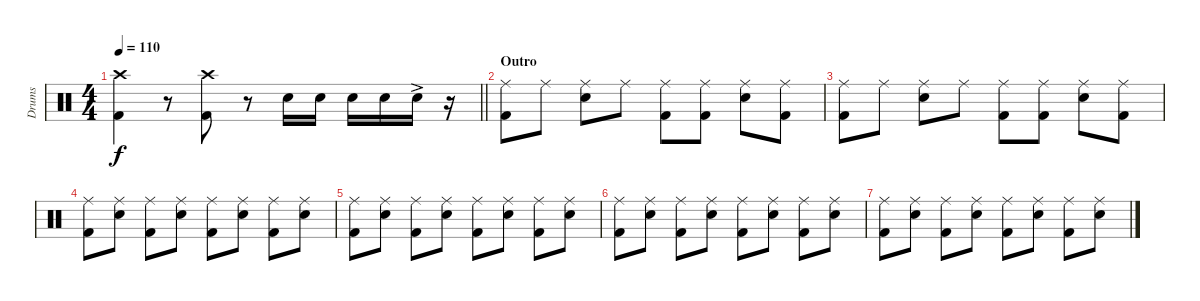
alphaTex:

\track ("Drums" "Drums") {instrument percussion}
\staff {score}
\articulation defaults
\ts (4 4)
\tempo 110
\clef neutral
\barLineRight lightlight
\ks c
("Crash high (hit)" "Kick (hit) 2").4{dy f} r.8 ("Crash high (hit)" "Kick (hit) 2").8 r.8 "Snare (hit) 2".16 "Snare (hit) 2".16 "Snare (hit) 2".16 "Snare (hit) 2".16 "Snare (hit) 2"{ac}.16 r.16 |
\section ("" "Outro")
("Ride (middle)" "Kick (hit) 2").8 "Ride (middle)".8 ("Ride (middle)" "Snare (hit) 2").8 "Ride (middle)".8 ("Ride (middle)" "Kick (hit) 2").8 ("Ride (middle)" "Kick (hit) 2").8 ("Ride (middle)" "Snare (hit) 2").8 ("Ride (middle)" "Kick (hit) 2").8 |
("Ride (middle)" "Kick (hit) 2").8 "Ride (middle)".8 ("Ride (middle)" "Snare (hit) 2").8 "Ride (middle)".8 ("Ride (middle)" "Kick (hit) 2").8 ("Ride (middle)" "Kick (hit) 2").8 ("Ride (middle)" "Snare (hit) 2").8 ("Ride (middle)" "Kick (hit) 2").8 |
("Ride (middle)" "Kick (hit) 2").8 ("Ride (middle)" "Snare (hit) 2").8 ("Ride (middle)" "Kick (hit) 2").8 ("Ride (middle)" "Snare (hit) 2").8 ("Ride (middle)" "Kick (hit) 2").8 ("Ride (middle)" "Snare (hit) 2").8 ("Ride (middle)" "Kick (hit) 2").8 ("Ride (middle)" "Snare (hit) 2").8 |
("Ride (middle)" "Kick (hit) 2").8 ("Ride (middle)" "Snare (hit) 2").8 ("Ride (middle)" "Kick (hit) 2").8 ("Ride (middle)" "Snare (hit) 2").8 ("Ride (middle)" "Kick (hit) 2").8 ("Ride (middle)" "Snare (hit) 2").8 ("Ride (middle)" "Kick (hit) 2").8 ("Ride (middle)" "Snare (hit) 2").8 |
("Ride (middle)" "Kick (hit) 2").8 ("Ride (middle)" "Snare (hit) 2").8 ("Ride (middle)" "Kick (hit) 2").8 ("Ride (middle)" "Snare (hit) 2").8 ("Ride (middle)" "Kick (hit) 2").8 ("Ride (middle)" "Snare (hit) 2").8 ("Ride (middle)" "Kick (hit) 2").8 ("Ride (middle)" "Snare (hit) 2").8 |
("Ride (middle)" "Kick (hit) 2").8 ("Ride (middle)" "Snare (hit) 2").8 ("Ride (middle)" "Kick (hit) 2").8 ("Ride (middle)" "Snare (hit) 2").8 ("Ride (middle)" "Kick (hit) 2").8 ("Ride (middle)" "Snare (hit) 2").8 ("Ride (middle)" "Kick (hit) 2").8 ("Ride (middle)" "Snare (hit) 2").8
